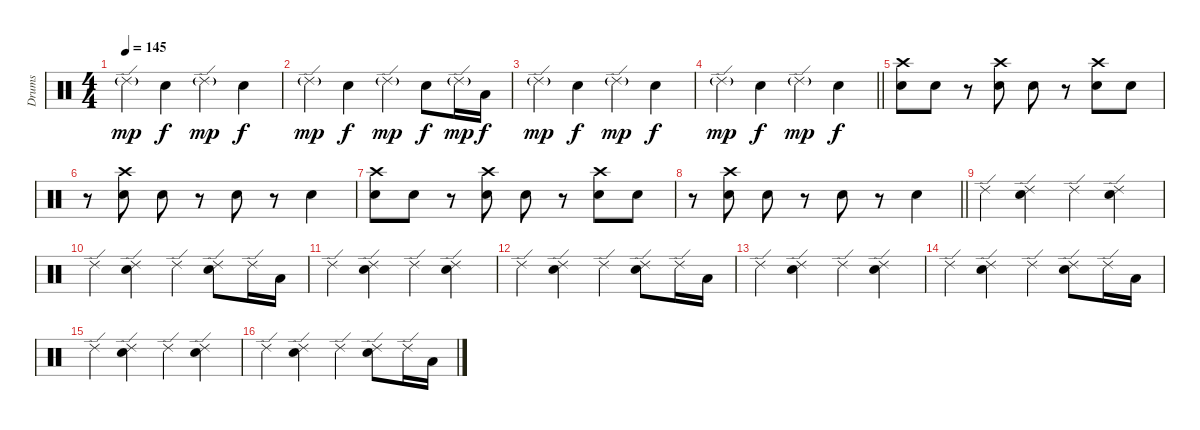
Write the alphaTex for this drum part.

\track ("Drums" "Drums") {instrument percussion}
\staff {score}
\articulation defaults
\ts (4 4)
\tempo 145
\clef neutral
\ks c "Ride (edge) 2"{g}.4{dy mp} "Electric Snare (hit)".4{dy f} "Ride (edge) 2"{g}.4{dy mp} "Electric Snare (hit)".4{dy f}
|
"Ride (edge) 2"{g}.4{dy mp} "Electric Snare (hit)".4{dy f} "Ride (edge) 2"{g}.4{dy mp} "Electric Snare (hit)".8{dy f} "Ride (edge) 2"{g}.16{dy mp} "Low Tom (hit)".16{dy f} |
"Ride (edge) 2"{g}.4{dy mp} "Electric Snare (hit)".4{dy f} "Ride (edge) 2"{g}.4{dy mp} "Electric Snare (hit)".4{dy f} |
\barLineRight lightlight "Ride (edge) 2"{g}.4{dy mp} "Electric Snare (hit)".4{dy f} "Ride (edge) 2"{g}.4{dy mp} "Electric Snare (hit)".4{dy f}
|
("Crash high (hit)" "Electric Snare (hit)").8 "Electric Snare (hit)".8 r.8 ("Crash high (hit)" "Electric Snare (hit)").8 "Electric Snare (hit)".8 r.8 ("Crash high (hit)" "Electric Snare (hit)").8 "Electric Snare (hit)".8 |
r.8 ("Crash high (hit)" "Electric Snare (hit)").8 "Electric Snare (hit)".8 r.8 "Electric Snare (hit)".8 r.8 "Electric Snare (hit)".4 |
("Crash high (hit)" "Electric Snare (hit)").8 "Electric Snare (hit)".8 r.8 ("Crash high (hit)" "Electric Snare (hit)").8 "Electric Snare (hit)".8 r.8 ("Crash high (hit)" "Electric Snare (hit)").8 "Electric Snare (hit)".8 |
\barLineRight lightlight
r.8 ("Crash high (hit)" "Electric Snare (hit)").8 "Electric Snare (hit)".8 r.8 "Electric Snare (hit)".8 r.8 "Electric Snare (hit)".4 |
"Ride (edge) 2".4 ("Ride (edge) 2" "Electric Snare (hit)").4 "Ride (edge) 2".4 ("Ride (edge) 2" "Electric Snare (hit)").4 |
"Ride (edge) 2".4 ("Ride (edge) 2" "Electric Snare (hit)").4 "Ride (edge) 2".4 ("Ride (edge) 2" "Electric Snare (hit)").8 "Ride (edge) 2".16 "Low Tom (hit)".16 |
"Ride (edge) 2".4 ("Ride (edge) 2" "Electric Snare (hit)").4 "Ride (edge) 2".4 ("Ride (edge) 2" "Electric Snare (hit)").4 |
"Ride (edge) 2".4 ("Ride (edge) 2" "Electric Snare (hit)").4 "Ride (edge) 2".4 ("Ride (edge) 2" "Electric Snare (hit)").8 "Ride (edge) 2".16 "Low Tom (hit)".16 |
"Ride (edge) 2".4 ("Ride (edge) 2" "Electric Snare (hit)").4 "Ride (edge) 2".4 ("Ride (edge) 2" "Electric Snare (hit)").4 |
"Ride (edge) 2".4 ("Ride (edge) 2" "Electric Snare (hit)").4 "Ride (edge) 2".4 ("Ride (edge) 2" "Electric Snare (hit)").8 "Ride (edge) 2".16 "Low Tom (hit)".16 |
"Ride (edge) 2".4 ("Ride (edge) 2" "Electric Snare (hit)").4 "Ride (edge) 2".4 ("Ride (edge) 2" "Electric Snare (hit)").4 |
"Ride (edge) 2".4 ("Ride (edge) 2" "Electric Snare (hit)").4 "Ride (edge) 2".4 ("Ride (edge) 2" "Electric Snare (hit)").8 "Ride (edge) 2".16 "Low Tom (hit)".16
